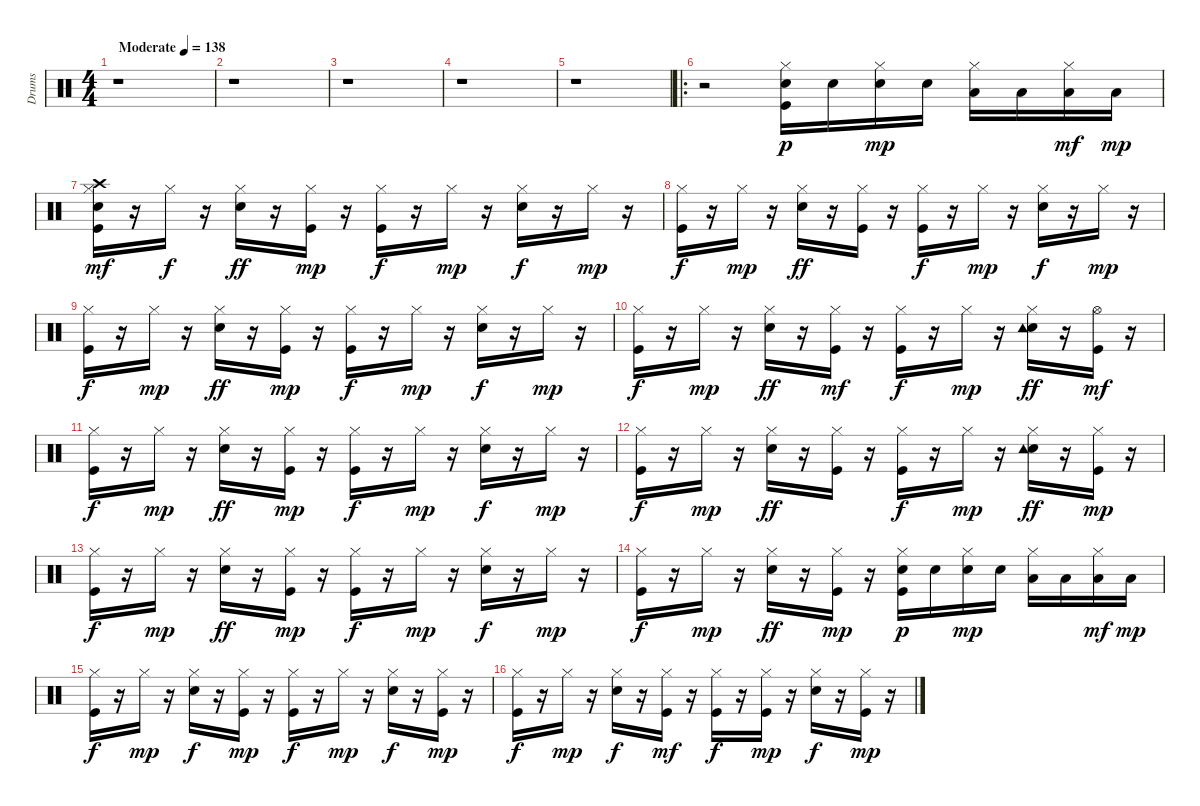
\track ("Drums" "Drums") {instrument percussion}
\staff {score}
\articulation defaults
\ts (4 4)
\tempo (138 "Moderate")
\clef neutral
\ks c
r.1{dy p} |
r.1 |
r.1 |
r.1 |
r.1 |
\ro
r.2 ("Kick (hit)" "Snare (hit) 2" "Hi-Hat (closed)").16 "Snare (hit) 2".16 ("Snare (hit) 2" "Hi-Hat (closed)").16{dy mp} "Snare (hit) 2".16 ("Hi-Hat (closed)" "Low Tom (hit)").16 "Low Tom (hit)".16 ("Hi-Hat (closed)" "Low Tom (hit)").16{dy mf} "Low Tom (hit)".16{dy mp} |
("Kick (hit)" "Snare (hit) 2" "Hi-Hat (closed)" "Crash high (hit)").16{dy mf} r.16 "Hi-Hat (closed)".16{dy f} r.16 ("Snare (hit) 2" "Hi-Hat (closed)").16{dy ff} r.16 ("Kick (hit)" "Hi-Hat (closed)").16{dy mp} r.16 ("Kick (hit)" "Hi-Hat (closed)").16{dy f} r.16 "Hi-Hat (closed)".16{dy mp} r.16 ("Snare (hit) 2" "Hi-Hat (closed)").16{dy f} r.16 "Hi-Hat (closed)".16{dy mp} r.16 |
("Kick (hit)" "Hi-Hat (closed)").16{dy f} r.16 "Hi-Hat (closed)".16{dy mp} r.16 ("Snare (hit) 2" "Hi-Hat (closed)").16{dy ff} r.16 ("Kick (hit)" "Hi-Hat (closed)").16 r.16 ("Kick (hit)" "Hi-Hat (closed)").16{dy f} r.16 "Hi-Hat (closed)".16{dy mp} r.16 ("Snare (hit) 2" "Hi-Hat (closed)").16{dy f} r.16 "Hi-Hat (closed)".16{dy mp} r.16 |
("Kick (hit)" "Hi-Hat (closed)").16{dy f} r.16 "Hi-Hat (closed)".16{dy mp} r.16 ("Snare (hit) 2" "Hi-Hat (closed)").16{dy ff} r.16 ("Kick (hit)" "Hi-Hat (closed)").16{dy mp} r.16 ("Kick (hit)" "Hi-Hat (closed)").16{dy f} r.16 "Hi-Hat (closed)".16{dy mp} r.16 ("Snare (hit) 2" "Hi-Hat (closed)").16{dy f} r.16 "Hi-Hat (closed)".16{dy mp} r.16 |
("Kick (hit)" "Hi-Hat (closed)").16{dy f} r.16 "Hi-Hat (closed)".16{dy mp} r.16 ("Snare (hit) 2" "Hi-Hat (closed)").16{dy ff} r.16 ("Kick (hit)" "Hi-Hat (closed)").16{dy mf} r.16 ("Kick (hit)" "Hi-Hat (closed)").16{dy f} r.16 "Hi-Hat (closed)".16{dy mp} r.16 ("Snare (hit) 2" "Hi-Hat (closed)" "Tambourine (hit)").16{dy ff} r.16 ("Kick (hit)" "Hi-Hat (open)").16{dy mf} r.16 |
("Kick (hit)" "Hi-Hat (closed)").16{dy f} r.16 "Hi-Hat (closed)".16{dy mp} r.16 ("Snare (hit) 2" "Hi-Hat (closed)").16{dy ff} r.16 ("Kick (hit)" "Hi-Hat (closed)").16{dy mp} r.16 ("Kick (hit)" "Hi-Hat (closed)").16{dy f} r.16 "Hi-Hat (closed)".16{dy mp} r.16 ("Snare (hit) 2" "Hi-Hat (closed)").16{dy f} r.16 "Hi-Hat (closed)".16{dy mp} r.16 |
("Kick (hit)" "Hi-Hat (closed)").16{dy f} r.16 "Hi-Hat (closed)".16{dy mp} r.16 ("Snare (hit) 2" "Hi-Hat (closed)").16{dy ff} r.16 ("Kick (hit)" "Hi-Hat (closed)").16 r.16 ("Kick (hit)" "Hi-Hat (closed)").16{dy f} r.16 "Hi-Hat (closed)".16{dy mp} r.16 ("Snare (hit) 2" "Hi-Hat (closed)" "Tambourine (hit)").16{dy ff} r.16 ("Kick (hit)" "Hi-Hat (closed)").16{dy mp} r.16 |
("Kick (hit)" "Hi-Hat (closed)").16{dy f} r.16 "Hi-Hat (closed)".16{dy mp} r.16 ("Snare (hit) 2" "Hi-Hat (closed)").16{dy ff} r.16 ("Kick (hit)" "Hi-Hat (closed)").16{dy mp} r.16 ("Kick (hit)" "Hi-Hat (closed)").16{dy f} r.16 "Hi-Hat (closed)".16{dy mp} r.16 ("Snare (hit) 2" "Hi-Hat (closed)").16{dy f} r.16 "Hi-Hat (closed)".16{dy mp} r.16 |
("Kick (hit)" "Hi-Hat (closed)").16{dy f} r.16 "Hi-Hat (closed)".16{dy mp} r.16 ("Snare (hit) 2" "Hi-Hat (closed)").16{dy ff} r.16 ("Kick (hit)" "Hi-Hat (closed)").16{dy mp} r.16 ("Kick (hit)" "Snare (hit) 2" "Hi-Hat (closed)").16{dy p} "Snare (hit) 2".16 ("Snare (hit) 2" "Hi-Hat (closed)").16{dy mp} "Snare (hit) 2".16 ("Hi-Hat (closed)" "Low Tom (hit)").16 "Low Tom (hit)".16 ("Hi-Hat (closed)" "Low Tom (hit)").16{dy mf} "Low Tom (hit)".16{dy mp} |
("Kick (hit)" "Hi-Hat (closed)").16{dy f} r.16 "Hi-Hat (closed)".16{dy mp} r.16 ("Snare (hit) 2" "Hi-Hat (closed)").16{dy f} r.16 ("Kick (hit)" "Hi-Hat (closed)").16{dy mp} r.16 ("Kick (hit)" "Hi-Hat (closed)").16{dy f} r.16 "Hi-Hat (closed)".16{dy mp} r.16 ("Snare (hit) 2" "Hi-Hat (closed)").16{dy f} r.16 ("Kick (hit)" "Hi-Hat (closed)").16{dy mp} r.16 |
("Kick (hit)" "Hi-Hat (closed)").16{dy f} r.16 "Hi-Hat (closed)".16{dy mp} r.16 ("Snare (hit) 2" "Hi-Hat (closed)").16{dy f} r.16 ("Kick (hit)" "Hi-Hat (closed)").16{dy mf} r.16 ("Kick (hit)" "Hi-Hat (closed)").16{dy f} r.16 ("Kick (hit)" "Hi-Hat (closed)").16{dy mp} r.16 ("Snare (hit) 2" "Hi-Hat (closed)").16{dy f} r.16 ("Kick (hit)" "Hi-Hat (closed)").16{dy mp} r.16
